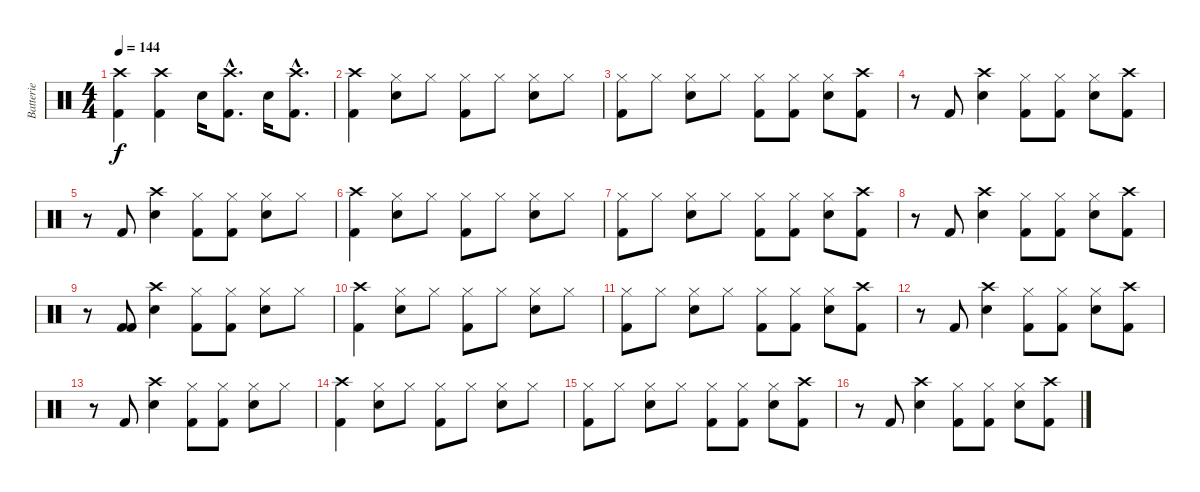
\track ("Batterie" "Batterie") {instrument percussion}
\staff {score}
\articulation defaults
\ts (4 4)
\tempo 144
\clef neutral
\ks c
("Crash high (hit)" "Kick (hit) 2").4{dy f} ("Crash high (hit)" "Kick (hit) 2").4 "Snare (hit) 2".16 ("Crash high (hit)"{hac} "Kick (hit) 2"{hac}).8{d} "Snare (hit) 2".16 ("Crash high (hit)"{hac} "Kick (hit) 2"{hac}).8{d} |
("Crash high (hit)" "Kick (hit) 2").4 ("Hi-Hat (closed)" "Snare (hit) 2").8 "Hi-Hat (closed)".8 ("Hi-Hat (closed)" "Kick (hit) 2").8 "Hi-Hat (closed)".8 ("Hi-Hat (closed)" "Snare (hit) 2").8 "Hi-Hat (closed)".8 |
("Hi-Hat (closed)" "Kick (hit) 2").8 "Hi-Hat (closed)".8 ("Hi-Hat (closed)" "Snare (hit) 2").8 "Hi-Hat (closed)".8 ("Hi-Hat (closed)" "Kick (hit) 2").8 ("Hi-Hat (closed)" "Kick (hit) 2").8 ("Hi-Hat (closed)" "Snare (hit) 2").8 ("Crash high (hit)" "Kick (hit) 2").8 |
r.8 "Kick (hit) 2".8 ("Crash high (hit)" "Snare (hit) 2").4 ("Hi-Hat (closed)" "Kick (hit) 2").8 ("Hi-Hat (closed)" "Kick (hit) 2").8 ("Hi-Hat (closed)" "Snare (hit) 2").8 ("Crash high (hit)" "Kick (hit) 2").8 |
r.8 "Kick (hit) 2".8 ("Crash high (hit)" "Snare (hit) 2").4 ("Kick (hit) 2" "Hi-Hat (closed)").8 ("Kick (hit) 2" "Hi-Hat (closed)").8 ("Snare (hit) 2" "Hi-Hat (closed)").8 "Hi-Hat (closed)".8 |
("Crash high (hit)" "Kick (hit) 2").4 ("Hi-Hat (closed)" "Snare (hit) 2").8 "Hi-Hat (closed)".8 ("Hi-Hat (closed)" "Kick (hit) 2").8 "Hi-Hat (closed)".8 ("Hi-Hat (closed)" "Snare (hit) 2").8 "Hi-Hat (closed)".8 |
("Hi-Hat (closed)" "Kick (hit) 2").8 "Hi-Hat (closed)".8 ("Hi-Hat (closed)" "Snare (hit) 2").8 "Hi-Hat (closed)".8 ("Hi-Hat (closed)" "Kick (hit) 2").8 ("Hi-Hat (closed)" "Kick (hit) 2").8 ("Hi-Hat (closed)" "Snare (hit) 2").8 ("Crash high (hit)" "Kick (hit) 2").8 |
r.8 "Kick (hit) 2".8 ("Crash high (hit)" "Snare (hit) 2").4 ("Hi-Hat (closed)" "Kick (hit) 2").8 ("Hi-Hat (closed)" "Kick (hit) 2").8 ("Hi-Hat (closed)" "Snare (hit) 2").8 ("Crash high (hit)" "Kick (hit) 2").8 |
r.8 ("Kick (hit) 2" "Kick (hit) 2").8 ("Crash high (hit)" "Snare (hit) 2").4 ("Kick (hit) 2" "Hi-Hat (closed)").8 ("Kick (hit) 2" "Hi-Hat (closed)").8 ("Snare (hit) 2" "Hi-Hat (closed)").8 "Hi-Hat (closed)".8 |
("Crash high (hit)" "Kick (hit) 2").4 ("Hi-Hat (closed)" "Snare (hit) 2").8 "Hi-Hat (closed)".8 ("Hi-Hat (closed)" "Kick (hit) 2").8 "Hi-Hat (closed)".8 ("Hi-Hat (closed)" "Snare (hit) 2").8 "Hi-Hat (closed)".8 |
("Hi-Hat (closed)" "Kick (hit) 2").8 "Hi-Hat (closed)".8 ("Hi-Hat (closed)" "Snare (hit) 2").8 "Hi-Hat (closed)".8 ("Hi-Hat (closed)" "Kick (hit) 2").8 ("Hi-Hat (closed)" "Kick (hit) 2").8 ("Hi-Hat (closed)" "Snare (hit) 2").8 ("Crash high (hit)" "Kick (hit) 2").8 |
r.8 "Kick (hit) 2".8 ("Crash high (hit)" "Snare (hit) 2").4 ("Hi-Hat (closed)" "Kick (hit) 2").8 ("Hi-Hat (closed)" "Kick (hit) 2").8 ("Hi-Hat (closed)" "Snare (hit) 2").8 ("Crash high (hit)" "Kick (hit) 2").8 |
r.8 "Kick (hit) 2".8 ("Crash high (hit)" "Snare (hit) 2").4 ("Kick (hit) 2" "Hi-Hat (closed)").8 ("Kick (hit) 2" "Hi-Hat (closed)").8 ("Snare (hit) 2" "Hi-Hat (closed)").8 "Hi-Hat (closed)".8 |
("Crash high (hit)" "Kick (hit) 2").4 ("Hi-Hat (closed)" "Snare (hit) 2").8 "Hi-Hat (closed)".8 ("Hi-Hat (closed)" "Kick (hit) 2").8 "Hi-Hat (closed)".8 ("Hi-Hat (closed)" "Snare (hit) 2").8 "Hi-Hat (closed)".8 |
("Hi-Hat (closed)" "Kick (hit) 2").8 "Hi-Hat (closed)".8 ("Hi-Hat (closed)" "Snare (hit) 2").8 "Hi-Hat (closed)".8 ("Hi-Hat (closed)" "Kick (hit) 2").8 ("Hi-Hat (closed)" "Kick (hit) 2").8 ("Hi-Hat (closed)" "Snare (hit) 2").8 ("Crash high (hit)" "Kick (hit) 2").8 |
r.8 "Kick (hit) 2".8 ("Crash high (hit)" "Snare (hit) 2").4 ("Hi-Hat (closed)" "Kick (hit) 2").8 ("Hi-Hat (closed)" "Kick (hit) 2").8 ("Hi-Hat (closed)" "Snare (hit) 2").8 ("Crash high (hit)" "Kick (hit) 2").8
